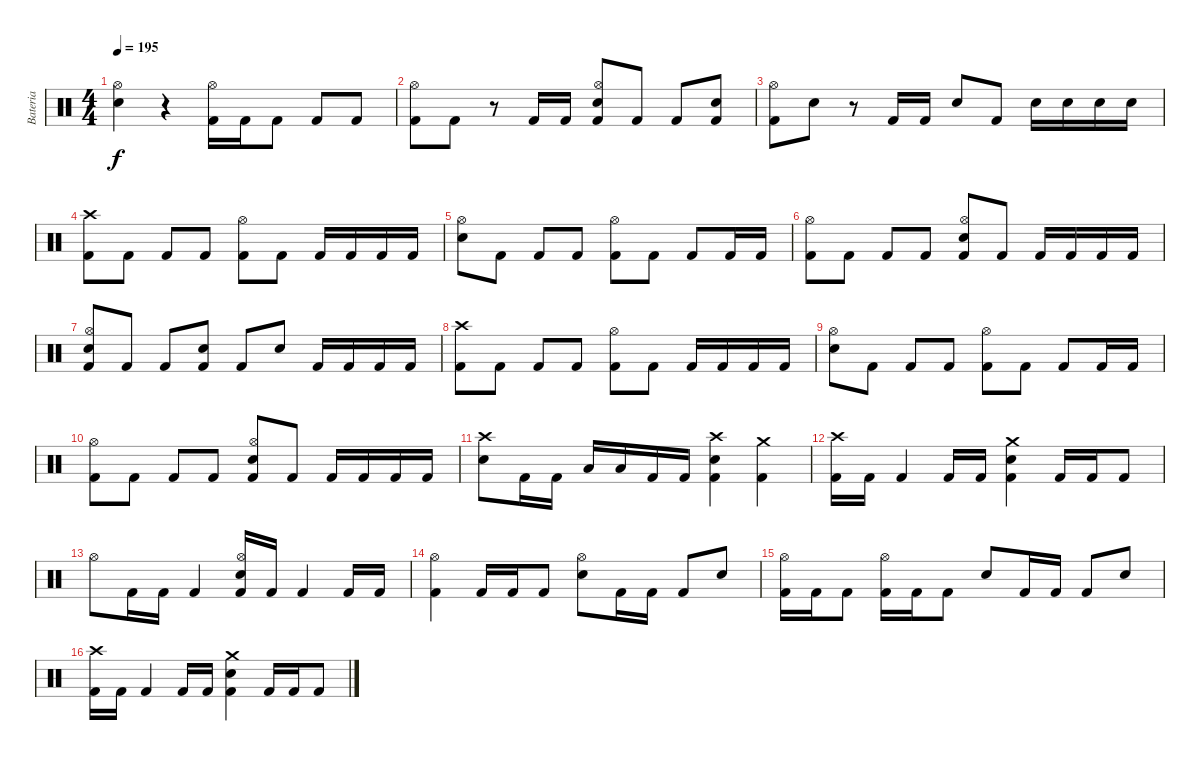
\track ("Bateria" "Bateria") {instrument percussion}
\staff {score}
\articulation defaults
\ts (4 4)
\tempo 195
\clef neutral
\ks c
("Snare (hit) 2" "Hi-Hat (open)").4{dy f} r.4 ("Hi-Hat (open)" "Kick (hit) 2").16 "Kick (hit) 2".16 "Kick (hit) 2".8 "Kick (hit) 2".8 "Kick (hit) 2".8 |
("Hi-Hat (open)" "Kick (hit) 2").8 "Kick (hit) 2".8 r.8 "Kick (hit) 2".16 "Kick (hit) 2".16 ("Snare (hit) 2" "Hi-Hat (open)" "Kick (hit) 2").8 "Kick (hit) 2".8 "Kick (hit) 2".8 ("Snare (hit) 2" "Kick (hit) 2").8 |
("Hi-Hat (open)" "Kick (hit) 2").8 "Snare (hit) 2".8 r.8 "Kick (hit) 2".16 "Kick (hit) 2".16 "Snare (hit) 2".8 "Kick (hit) 2".8 "Snare (hit) 2".16 "Snare (hit) 2".16 "Snare (hit) 2".16 "Snare (hit) 2".16 |
("Crash high (hit)" "Kick (hit) 2").8 "Kick (hit) 2".8 "Kick (hit) 2".8 "Kick (hit) 2".8 ("Hi-Hat (open)" "Kick (hit) 2").8 "Kick (hit) 2".8 "Kick (hit) 2".16 "Kick (hit) 2".16 "Kick (hit) 2".16 "Kick (hit) 2".16 |
("Snare (hit) 2" "Hi-Hat (open)").8 "Kick (hit) 2".8 "Kick (hit) 2".8 "Kick (hit) 2".8 ("Hi-Hat (open)" "Kick (hit) 2").8 "Kick (hit) 2".8 "Kick (hit) 2".8 "Kick (hit) 2".16 "Kick (hit) 2".16 |
("Hi-Hat (open)" "Kick (hit) 2").8 "Kick (hit) 2".8 "Kick (hit) 2".8 "Kick (hit) 2".8 ("Snare (hit) 2" "Hi-Hat (open)" "Kick (hit) 2").8 "Kick (hit) 2".8 "Kick (hit) 2".16 "Kick (hit) 2".16 "Kick (hit) 2".16 "Kick (hit) 2".16 |
("Snare (hit) 2" "Hi-Hat (open)" "Kick (hit) 2").8 "Kick (hit) 2".8 "Kick (hit) 2".8 ("Snare (hit) 2" "Kick (hit) 2").8 "Kick (hit) 2".8 "Snare (hit) 2".8 "Kick (hit) 2".16 "Kick (hit) 2".16 "Kick (hit) 2".16 "Kick (hit) 2".16 |
("Crash high (hit)" "Kick (hit) 2").8 "Kick (hit) 2".8 "Kick (hit) 2".8 "Kick (hit) 2".8 ("Hi-Hat (open)" "Kick (hit) 2").8 "Kick (hit) 2".8 "Kick (hit) 2".16 "Kick (hit) 2".16 "Kick (hit) 2".16 "Kick (hit) 2".16 |
("Snare (hit) 2" "Hi-Hat (open)").8 "Kick (hit) 2".8 "Kick (hit) 2".8 "Kick (hit) 2".8 ("Hi-Hat (open)" "Kick (hit) 2").8 "Kick (hit) 2".8 "Kick (hit) 2".8 "Kick (hit) 2".16 "Kick (hit) 2".16 |
("Hi-Hat (open)" "Kick (hit) 2").8 "Kick (hit) 2".8 "Kick (hit) 2".8 "Kick (hit) 2".8 ("Snare (hit) 2" "Hi-Hat (open)" "Kick (hit) 2").8 "Kick (hit) 2".8 "Kick (hit) 2".16 "Kick (hit) 2".16 "Kick (hit) 2".16 "Kick (hit) 2".16 |
("Snare (hit) 2" "Crash high (hit)").8 "Kick (hit) 2".16 "Kick (hit) 2".16 "Low Tom (hit)".16 "Low Tom (hit)".16 "Kick (hit) 2".16 "Kick (hit) 2".16 ("Snare (hit) 2" "Crash high (hit)" "Kick (hit) 2").4 ("Crash medium (hit)" "Kick (hit) 2").4 |
("Crash high (hit)" "Kick (hit) 2").16 "Kick (hit) 2".16 "Kick (hit) 2".4 "Kick (hit) 2".16 "Kick (hit) 2".16 ("Snare (hit) 2" "Crash medium (hit)" "Kick (hit) 2").4 "Kick (hit) 2".16 "Kick (hit) 2".16 "Kick (hit) 2".8 |
"Hi-Hat (open)".8 "Kick (hit) 2".16 "Kick (hit) 2".16 "Kick (hit) 2".4 ("Snare (hit) 2" "Hi-Hat (open)" "Kick (hit) 2").16 "Kick (hit) 2".16 "Kick (hit) 2".4 "Kick (hit) 2".16 "Kick (hit) 2".16 |
("Hi-Hat (open)" "Kick (hit) 2").4 "Kick (hit) 2".16 "Kick (hit) 2".16 "Kick (hit) 2".8 ("Snare (hit) 2" "Hi-Hat (open)").8 "Kick (hit) 2".16 "Kick (hit) 2".16 "Kick (hit) 2".8 "Snare (hit) 2".8 |
("Hi-Hat (open)" "Kick (hit) 2").16 "Kick (hit) 2".16 "Kick (hit) 2".8 ("Hi-Hat (open)" "Kick (hit) 2").16 "Kick (hit) 2".16 "Kick (hit) 2".8 "Snare (hit) 2".8 "Kick (hit) 2".16 "Kick (hit) 2".16 "Kick (hit) 2".8 "Snare (hit) 2".8 |
("Crash high (hit)" "Kick (hit) 2").16 "Kick (hit) 2".16 "Kick (hit) 2".4 "Kick (hit) 2".16 "Kick (hit) 2".16 ("Snare (hit) 2" "Crash medium (hit)" "Kick (hit) 2").4 "Kick (hit) 2".16 "Kick (hit) 2".16 "Kick (hit) 2".8
